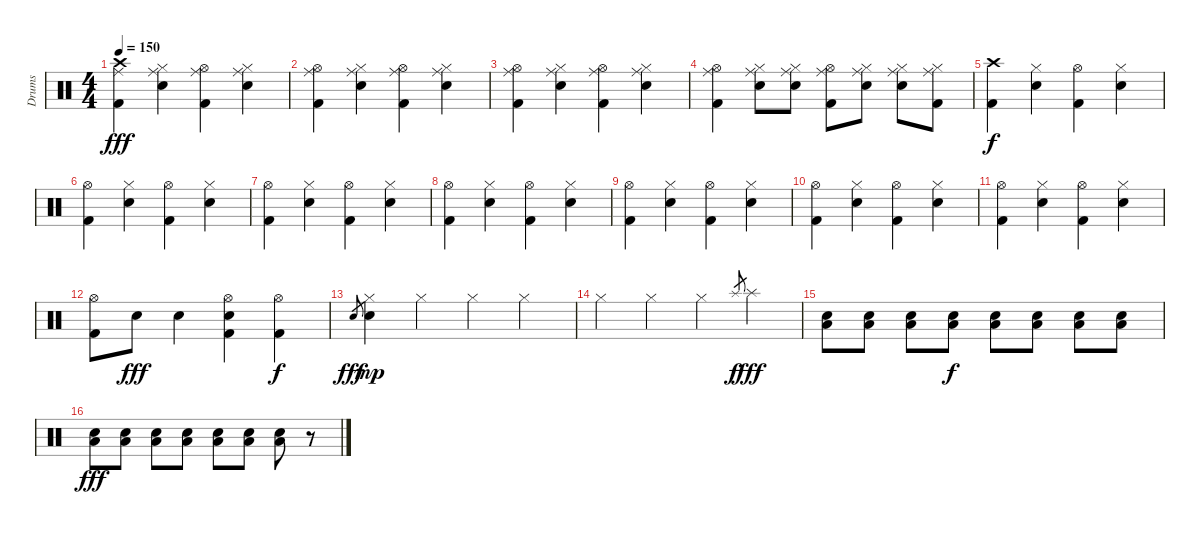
\track ("Drums" "Drums") {instrument percussion}
\staff {score}
\articulation defaults
\ts (4 4)
\tempo 150
\clef neutral
\ks c
("Kick (hit) 2" "Ride (middle)" "Crash high (hit)").4{dy fff} ("Electric Snare (hit)" "Ride (middle)" "Hi-Hat (closed)").4 ("Kick (hit) 2" "Ride (middle)" "Hi-Hat (open)").4 ("Electric Snare (hit)" "Ride (middle)" "Hi-Hat (closed)").4 |
("Kick (hit) 2" "Ride (middle)" "Hi-Hat (open)").4 ("Electric Snare (hit)" "Ride (middle)" "Hi-Hat (closed)").4 ("Kick (hit) 2" "Ride (middle)" "Hi-Hat (open)").4 ("Electric Snare (hit)" "Ride (middle)" "Hi-Hat (closed)").4 |
("Kick (hit) 2" "Ride (middle)" "Hi-Hat (open)").4 ("Electric Snare (hit)" "Ride (middle)" "Hi-Hat (closed)").4 ("Kick (hit) 2" "Ride (middle)" "Hi-Hat (open)").4 ("Electric Snare (hit)" "Ride (middle)" "Hi-Hat (closed)").4 |
("Kick (hit) 2" "Ride (middle)" "Hi-Hat (open)").4 ("Electric Snare (hit)" "Ride (middle)" "Hi-Hat (closed)").8 ("Electric Snare (hit)" "Ride (middle)" "Hi-Hat (closed)").8 ("Kick (hit) 2" "Ride (middle)" "Hi-Hat (open)").8 ("Electric Snare (hit)" "Ride (middle)" "Hi-Hat (closed)").8 ("Electric Snare (hit)" "Ride (middle)" "Hi-Hat (closed)").8 ("Kick (hit) 2" "Ride (middle)" "Hi-Hat (closed)").8 |
("Kick (hit) 2" "Crash high (hit)").4{dy f} ("Electric Snare (hit)" "Hi-Hat (closed)").4 ("Kick (hit) 2" "Hi-Hat (open)").4 ("Electric Snare (hit)" "Hi-Hat (closed)").4 |
("Kick (hit) 2" "Hi-Hat (open)").4 ("Electric Snare (hit)" "Hi-Hat (closed)").4 ("Kick (hit) 2" "Hi-Hat (open)").4 ("Electric Snare (hit)" "Hi-Hat (closed)").4 |
("Kick (hit) 2" "Hi-Hat (open)").4 ("Electric Snare (hit)" "Hi-Hat (closed)").4 ("Kick (hit) 2" "Hi-Hat (open)").4 ("Electric Snare (hit)" "Hi-Hat (closed)").4 |
("Kick (hit) 2" "Hi-Hat (open)").4 ("Electric Snare (hit)" "Hi-Hat (closed)").4 ("Kick (hit) 2" "Hi-Hat (open)").4 ("Electric Snare (hit)" "Hi-Hat (closed)").4 |
("Kick (hit) 2" "Hi-Hat (open)").4 ("Electric Snare (hit)" "Hi-Hat (closed)").4 ("Kick (hit) 2" "Hi-Hat (open)").4 ("Electric Snare (hit)" "Hi-Hat (closed)").4 |
("Kick (hit) 2" "Hi-Hat (open)").4 ("Electric Snare (hit)" "Hi-Hat (closed)").4 ("Kick (hit) 2" "Hi-Hat (open)").4 ("Electric Snare (hit)" "Hi-Hat (closed)").4 |
("Kick (hit) 2" "Hi-Hat (open)").4 ("Electric Snare (hit)" "Hi-Hat (closed)").4 ("Kick (hit) 2" "Hi-Hat (open)").4 ("Electric Snare (hit)" "Hi-Hat (closed)").4 |
("Kick (hit) 2" "Hi-Hat (open)").8 "Electric Snare (hit)".8{dy fff} "Electric Snare (hit)".4 ("Electric Snare (hit)" "Kick (hit) 2" "Hi-Hat (open)").4 ("Kick (hit) 2" "Hi-Hat (open)").4{dy f} |
"Electric Snare (hit)".8{gr dy fff} ("Electric Snare (hit)" "Hi-Hat (closed)").4{dy mp} "Hi-Hat (closed)".4 "Hi-Hat (closed)".4 "Hi-Hat (closed)".4 |
"Hi-Hat (closed)".4 "Hi-Hat (closed)".4 "Hi-Hat (closed)".4 "Splash (hit)".8{gr dy f} "Splash (hit)".4{dy fff} |
("Electric Snare (hit)" "Low Floor Tom (hit)").8 ("Electric Snare (hit)" "Low Floor Tom (hit)").8 ("Electric Snare (hit)" "Low Floor Tom (hit)").8 ("Electric Snare (hit)" "Low Floor Tom (hit)").8{dy f} ("Electric Snare (hit)" "Low Floor Tom (hit)").8 ("Electric Snare (hit)" "Low Floor Tom (hit)").8 ("Electric Snare (hit)" "Low Floor Tom (hit)").8 ("Electric Snare (hit)" "Low Floor Tom (hit)").8 |
("Electric Snare (hit)" "Low Floor Tom (hit)").8{dy fff} ("Electric Snare (hit)" "Low Floor Tom (hit)").8 ("Electric Snare (hit)" "Low Floor Tom (hit)").8 ("Electric Snare (hit)" "Low Floor Tom (hit)").8 ("Electric Snare (hit)" "Low Floor Tom (hit)").8 ("Electric Snare (hit)" "Low Floor Tom (hit)").8 ("Electric Snare (hit)" "Low Floor Tom (hit)").8 r.8
